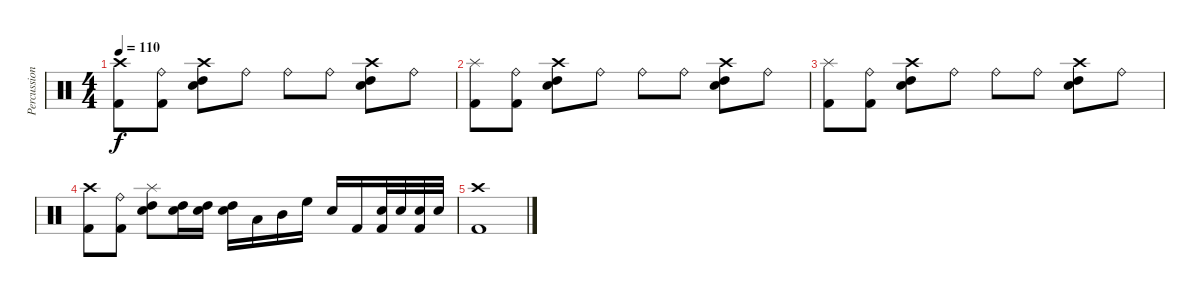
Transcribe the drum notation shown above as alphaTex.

\track ("Percussion" "Percussion") {instrument percussion}
\staff {score}
\articulation defaults
\ts (4 4)
\tempo 110
\clef neutral
\ks c
("Crash high (hit)" "Kick (hit) 2").8{dy f} ("Ride (bell)" "Kick (hit) 2").8 ("Crash high (hit)" "High Tom (hit)" "Snare (hit) 2").8 "Ride (bell)".8 "Ride (bell)".8 "Ride (bell)".8 ("Crash high (hit)" "High Tom (hit)" "Snare (hit) 2").8 "Ride (bell)".8 |
("Splash (hit)" "Kick (hit) 2").8 ("Ride (bell)" "Kick (hit) 2").8 ("Crash high (hit)" "High Tom (hit)" "Snare (hit) 2").8 "Ride (bell)".8 "Ride (bell)".8 "Ride (bell)".8 ("Crash high (hit)" "High Tom (hit)" "Snare (hit) 2").8 "Ride (bell)".8 |
("Splash (hit)" "Kick (hit) 2").8 ("Ride (bell)" "Kick (hit) 2").8 ("Crash high (hit)" "High Tom (hit)" "Snare (hit) 2").8 "Ride (bell)".8 "Ride (bell)".8 "Ride (bell)".8 ("Crash high (hit)" "High Tom (hit)" "Snare (hit) 2").8 "Ride (bell)".8 |
("Crash high (hit)" "Kick (hit) 2").8 ("Ride (bell)" "Kick (hit) 2").8 ("Splash (hit)" "High Tom (hit)" "Snare (hit) 2").8 ("High Tom (hit)" "Snare (hit) 2").16 ("High Tom (hit)" "Snare (hit) 2").16 ("High Tom (hit)" "Snare (hit) 2").16 "Low Tom (hit)".16 "Mid Tom (hit)".16 "High Floor Tom (hit)".16 "Snare (hit) 2".16 "Kick (hit) 2".16 ("Snare (hit) 2" "Kick (hit) 2").32 "Snare (hit) 2".32 ("Snare (hit) 2" "Kick (hit) 2").32 "Snare (hit) 2".32 |
("Crash high (hit)" "Kick (hit) 2").1
